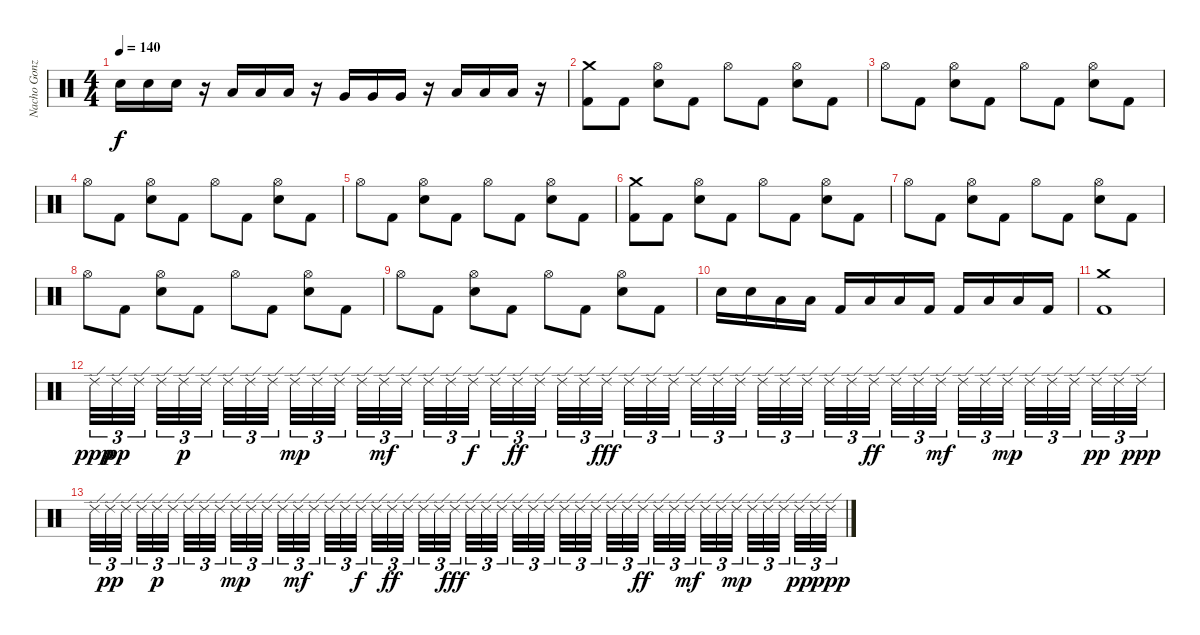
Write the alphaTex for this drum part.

\track ("Nacho Gonzalez" "Nacho Gonz") {instrument percussion}
\staff {score}
\articulation defaults
\ts (4 4)
\tempo 140
\clef neutral
\ks c "Electric Snare (hit)".16{dy f} "Electric Snare (hit)".16 "Electric Snare (hit)".16
r.16 "Low Tom (hit)".16 "Low Tom (hit)".16 "Low Tom (hit)".16 r.16 "Very Low Tom (hit)".16 "Very Low Tom (hit)".16 "Very Low Tom (hit)".16 r.16 "Low Floor Tom (hit)".16 "Low Floor Tom (hit)".16 "Low Floor Tom (hit)".16 r.16 |
("Crash medium (hit)" "Kick (hit) 2").8 "Kick (hit) 2".8 ("Hi-Hat (open)" "Electric Snare (hit)").8 "Kick (hit) 2".8 "Hi-Hat (open)".8 "Kick (hit) 2".8 ("Hi-Hat (open)" "Electric Snare (hit)").8 "Kick (hit) 2".8 |
"Hi-Hat (open)".8 "Kick (hit) 2".8 ("Hi-Hat (open)" "Electric Snare (hit)").8 "Kick (hit) 2".8 "Hi-Hat (open)".8 "Kick (hit) 2".8 ("Hi-Hat (open)" "Electric Snare (hit)").8 "Kick (hit) 2".8 |
"Hi-Hat (open)".8 "Kick (hit) 2".8 ("Hi-Hat (open)" "Electric Snare (hit)").8 "Kick (hit) 2".8 "Hi-Hat (open)".8 "Kick (hit) 2".8 ("Hi-Hat (open)" "Electric Snare (hit)").8 "Kick (hit) 2".8 |
"Hi-Hat (open)".8 "Kick (hit) 2".8 ("Hi-Hat (open)" "Electric Snare (hit)").8 "Kick (hit) 2".8 "Hi-Hat (open)".8 "Kick (hit) 2".8 ("Hi-Hat (open)" "Electric Snare (hit)").8 "Kick (hit) 2".8 |
("Crash medium (hit)" "Kick (hit) 2").8 "Kick (hit) 2".8 ("Hi-Hat (open)" "Electric Snare (hit)").8 "Kick (hit) 2".8 "Hi-Hat (open)".8 "Kick (hit) 2".8 ("Hi-Hat (open)" "Electric Snare (hit)").8 "Kick (hit) 2".8 |
"Hi-Hat (open)".8 "Kick (hit) 2".8 ("Hi-Hat (open)" "Electric Snare (hit)").8 "Kick (hit) 2".8 "Hi-Hat (open)".8 "Kick (hit) 2".8 ("Hi-Hat (open)" "Electric Snare (hit)").8 "Kick (hit) 2".8 |
"Hi-Hat (open)".8 "Kick (hit) 2".8 ("Hi-Hat (open)" "Electric Snare (hit)").8 "Kick (hit) 2".8 "Hi-Hat (open)".8 "Kick (hit) 2".8 ("Hi-Hat (open)" "Electric Snare (hit)").8 "Kick (hit) 2".8 |
"Hi-Hat (open)".8 "Kick (hit) 2".8 ("Hi-Hat (open)" "Electric Snare (hit)").8 "Kick (hit) 2".8 "Hi-Hat (open)".8 "Kick (hit) 2".8 ("Hi-Hat (open)" "Electric Snare (hit)").8 "Kick (hit) 2".8 |
"Electric Snare (hit)".16 "Electric Snare (hit)".16 "Low Tom (hit)".16 "Low Tom (hit)".16 "Kick (hit) 2".16 "Low Tom (hit)".16 "Low Tom (hit)".16 "Kick (hit) 2".16 "Kick (hit) 2".16 "Low Tom (hit)".16 "Low Tom (hit)".16 "Kick (hit) 2".16 |
("Crash medium (hit)" "Kick (hit) 2").1 |
"Ride (edge) 2".32{tu (3 2) dy ppp} "Ride (edge) 2".32{tu (3 2) dy pp} "Ride (edge) 2".32{tu (3 2) beam splitsecondary} "Ride (edge) 2".32{tu (3 2)} "Ride (edge) 2".32{tu (3 2) dy p} "Ride (edge) 2".32{tu (3 2) beam splitsecondary} "Ride (edge) 2".32{tu (3 2)} "Ride (edge) 2".32{tu (3 2)} "Ride (edge) 2".32{tu (3 2) beam splitsecondary} "Ride (edge) 2".32{tu (3 2) dy mp} "Ride (edge) 2".32{tu (3 2)} "Ride (edge) 2".32{tu (3 2)} "Ride (edge) 2".32{tu (3 2)} "Ride (edge) 2".32{tu (3 2) dy mf} "Ride (edge) 2".32{tu (3 2) beam splitsecondary} "Ride (edge) 2".32{tu (3 2)} "Ride (edge) 2".32{tu (3 2)} "Ride (edge) 2".32{tu (3 2) dy f beam splitsecondary} "Ride (edge) 2".32{tu (3 2)} "Ride (edge) 2".32{tu (3 2) dy ff} "Ride (edge) 2".32{tu (3 2) beam splitsecondary} "Ride (edge) 2".32{tu (3 2)} "Ride (edge) 2".32{tu (3 2)} "Ride (edge) 2".32{tu (3 2) dy fff} "Ride (edge) 2".32{tu (3 2)} "Ride (edge) 2".32{tu (3 2)} "Ride (edge) 2".32{tu (3 2) beam splitsecondary} "Ride (edge) 2".32{tu (3 2)} "Ride (edge) 2".32{tu (3 2)} "Ride (edge) 2".32{tu (3 2) beam splitsecondary} "Ride (edge) 2".32{tu (3 2)} "Ride (edge) 2".32{tu (3 2)} "Ride (edge) 2".32{tu (3 2) beam splitsecondary} "Ride (edge) 2".32{tu (3 2)} "Ride (edge) 2".32{tu (3 2)} "Ride (edge) 2".32{tu (3 2) dy ff} "Ride (edge) 2".32{tu (3 2)} "Ride (edge) 2".32{tu (3 2)} "Ride (edge) 2".32{tu (3 2) dy mf beam splitsecondary} "Ride (edge) 2".32{tu (3 2)} "Ride (edge) 2".32{tu (3 2)} "Ride (edge) 2".32{tu (3 2) dy mp beam splitsecondary} "Ride (edge) 2".32{tu (3 2)} "Ride (edge) 2".32{tu (3 2)} "Ride (edge) 2".32{tu (3 2) beam splitsecondary} "Ride (edge) 2".32{tu (3 2) dy pp} "Ride (edge) 2".32{tu (3 2)} "Ride (edge) 2".32{tu (3 2) dy ppp} |
"Ride (edge) 2".32{tu (3 2)} "Ride (edge) 2".32{tu (3 2) dy pp} "Ride (edge) 2".32{tu (3 2) beam splitsecondary} "Ride (edge) 2".32{tu (3 2)} "Ride (edge) 2".32{tu (3 2) dy p} "Ride (edge) 2".32{tu (3 2) beam splitsecondary} "Ride (edge) 2".32{tu (3 2)} "Ride (edge) 2".32{tu (3 2)} "Ride (edge) 2".32{tu (3 2) beam splitsecondary} "Ride (edge) 2".32{tu (3 2) dy mp} "Ride (edge) 2".32{tu (3 2)} "Ride (edge) 2".32{tu (3 2)} "Ride (edge) 2".32{tu (3 2)} "Ride (edge) 2".32{tu (3 2) dy mf} "Ride (edge) 2".32{tu (3 2) beam splitsecondary} "Ride (edge) 2".32{tu (3 2)} "Ride (edge) 2".32{tu (3 2)} "Ride (edge) 2".32{tu (3 2) dy f beam splitsecondary} "Ride (edge) 2".32{tu (3 2)} "Ride (edge) 2".32{tu (3 2) dy ff} "Ride (edge) 2".32{tu (3 2) beam splitsecondary} "Ride (edge) 2".32{tu (3 2)} "Ride (edge) 2".32{tu (3 2)} "Ride (edge) 2".32{tu (3 2) dy fff} "Ride (edge) 2".32{tu (3 2)} "Ride (edge) 2".32{tu (3 2)} "Ride (edge) 2".32{tu (3 2) beam splitsecondary} "Ride (edge) 2".32{tu (3 2)} "Ride (edge) 2".32{tu (3 2)} "Ride (edge) 2".32{tu (3 2) beam splitsecondary} "Ride (edge) 2".32{tu (3 2)} "Ride (edge) 2".32{tu (3 2)} "Ride (edge) 2".32{tu (3 2) beam splitsecondary} "Ride (edge) 2".32{tu (3 2)} "Ride (edge) 2".32{tu (3 2)} "Ride (edge) 2".32{tu (3 2) dy ff} "Ride (edge) 2".32{tu (3 2)} "Ride (edge) 2".32{tu (3 2)} "Ride (edge) 2".32{tu (3 2) dy mf beam splitsecondary} "Ride (edge) 2".32{tu (3 2)} "Ride (edge) 2".32{tu (3 2)} "Ride (edge) 2".32{tu (3 2) dy mp beam splitsecondary} "Ride (edge) 2".32{tu (3 2)} "Ride (edge) 2".32{tu (3 2)} "Ride (edge) 2".32{tu (3 2) beam splitsecondary} "Ride (edge) 2".32{tu (3 2) dy pp} "Ride (edge) 2".32{tu (3 2)} "Ride (edge) 2".32{tu (3 2) dy ppp}
